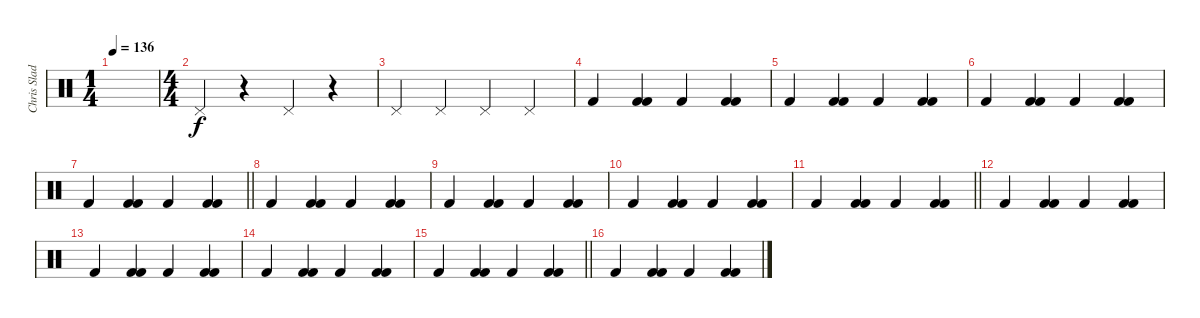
\track ("Chris Slade" "Chris Slad") {instrument percussion}
\staff {score}
\articulation defaults
\ts (1 4)
\tempo 136
\clef neutral
\ks c
|
\ts (4 4)
"Pedal Hi-Hat (hit)".4 r.4 "Pedal Hi-Hat (hit)".4 r.4 |
"Pedal Hi-Hat (hit)".4 "Pedal Hi-Hat (hit)".4 "Pedal Hi-Hat (hit)".4 "Pedal Hi-Hat (hit)".4 |
"Kick (hit) 2".4 ("Kick (hit) 2" "Kick (hit) 2").4 "Kick (hit) 2".4 ("Kick (hit) 2" "Kick (hit) 2").4 |
"Kick (hit) 2".4 ("Kick (hit) 2" "Kick (hit) 2").4 "Kick (hit) 2".4 ("Kick (hit) 2" "Kick (hit) 2").4 |
"Kick (hit) 2".4 ("Kick (hit) 2" "Kick (hit) 2").4 "Kick (hit) 2".4 ("Kick (hit) 2" "Kick (hit) 2").4 |
\barLineRight lightlight "Kick (hit) 2".4
("Kick (hit) 2" "Kick (hit) 2").4 "Kick (hit) 2".4 ("Kick (hit) 2" "Kick (hit) 2").4 |
"Kick (hit) 2".4 ("Kick (hit) 2" "Kick (hit) 2").4 "Kick (hit) 2".4 ("Kick (hit) 2" "Kick (hit) 2").4 |
"Kick (hit) 2".4 ("Kick (hit) 2" "Kick (hit) 2").4 "Kick (hit) 2".4 ("Kick (hit) 2" "Kick (hit) 2").4 |
"Kick (hit) 2".4 ("Kick (hit) 2" "Kick (hit) 2").4 "Kick (hit) 2".4 ("Kick (hit) 2" "Kick (hit) 2").4 |
\barLineRight lightlight "Kick (hit) 2".4
("Kick (hit) 2" "Kick (hit) 2").4 "Kick (hit) 2".4 ("Kick (hit) 2" "Kick (hit) 2").4 |
"Kick (hit) 2".4 ("Kick (hit) 2" "Kick (hit) 2").4 "Kick (hit) 2".4 ("Kick (hit) 2" "Kick (hit) 2").4 |
"Kick (hit) 2".4 ("Kick (hit) 2" "Kick (hit) 2").4 "Kick (hit) 2".4 ("Kick (hit) 2" "Kick (hit) 2").4 |
"Kick (hit) 2".4 ("Kick (hit) 2" "Kick (hit) 2").4 "Kick (hit) 2".4 ("Kick (hit) 2" "Kick (hit) 2").4 |
\barLineRight lightlight "Kick (hit) 2".4
("Kick (hit) 2" "Kick (hit) 2").4 "Kick (hit) 2".4 ("Kick (hit) 2" "Kick (hit) 2").4 |
"Kick (hit) 2".4 ("Kick (hit) 2" "Kick (hit) 2").4 "Kick (hit) 2".4 ("Kick (hit) 2" "Kick (hit) 2").4
